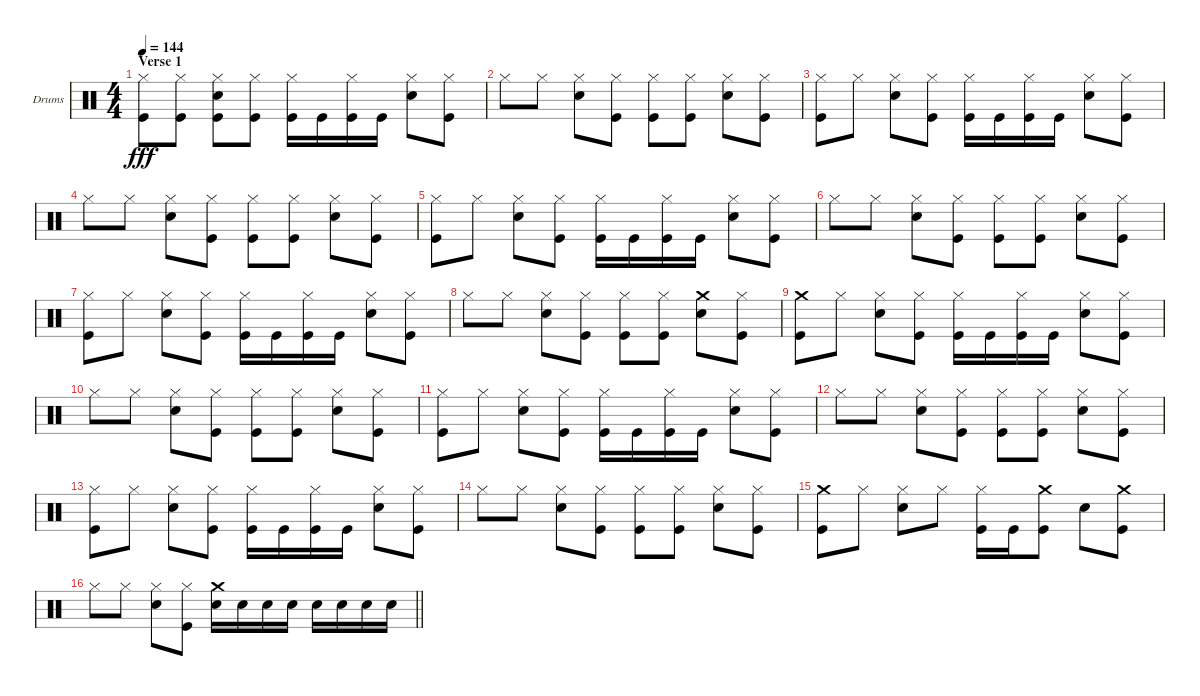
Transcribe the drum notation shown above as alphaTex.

\bracketExtendMode groupsimilarinstruments
\firstSystemTrackNameOrientation horizontal
\otherSystemsTrackNameOrientation horizontal
\track ("Drumkit" "Drums") {instrument percussion}
\staff {score}
\articulation defaults
\ts (4 4)
\section ("" "Verse 1")
\tempo 144
\clef neutral
\ks c
("Kick (hit)" "Hi-Hat (closed)").8{dy fff} ("Kick (hit)" "Hi-Hat (closed)").8 ("Kick (hit)" "Hi-Hat (closed)" "Snare (hit) 2").8 ("Kick (hit)" "Hi-Hat (closed)").8 ("Kick (hit)" "Hi-Hat (closed)").16 "Kick (hit)".16 ("Kick (hit)" "Hi-Hat (closed)").16 "Kick (hit)".16 ("Hi-Hat (closed)" "Snare (hit) 2").8 ("Kick (hit)" "Hi-Hat (closed)").8 |
"Hi-Hat (closed)".8 "Hi-Hat (closed)".8 ("Hi-Hat (closed)" "Snare (hit) 2").8 ("Kick (hit)" "Hi-Hat (closed)").8 ("Kick (hit)" "Hi-Hat (closed)").8 ("Hi-Hat (closed)" "Kick (hit)").8 ("Hi-Hat (closed)" "Snare (hit) 2").8 ("Hi-Hat (closed)" "Kick (hit)").8 |
("Kick (hit)" "Hi-Hat (closed)").8 "Hi-Hat (closed)".8 ("Hi-Hat (closed)" "Snare (hit) 2").8 ("Kick (hit)" "Hi-Hat (closed)").8 ("Kick (hit)" "Hi-Hat (closed)").16 "Kick (hit)".16 ("Kick (hit)" "Hi-Hat (closed)").16 "Kick (hit)".16 ("Hi-Hat (closed)" "Snare (hit) 2").8 ("Kick (hit)" "Hi-Hat (closed)").8 |
"Hi-Hat (closed)".8 "Hi-Hat (closed)".8 ("Hi-Hat (closed)" "Snare (hit) 2").8 ("Kick (hit)" "Hi-Hat (closed)").8 ("Kick (hit)" "Hi-Hat (closed)").8 ("Hi-Hat (closed)" "Kick (hit)").8 ("Hi-Hat (closed)" "Snare (hit) 2").8 ("Hi-Hat (closed)" "Kick (hit)").8 |
("Kick (hit)" "Hi-Hat (closed)").8 "Hi-Hat (closed)".8 ("Hi-Hat (closed)" "Snare (hit) 2").8 ("Kick (hit)" "Hi-Hat (closed)").8 ("Kick (hit)" "Hi-Hat (closed)").16 "Kick (hit)".16 ("Kick (hit)" "Hi-Hat (closed)").16 "Kick (hit)".16 ("Hi-Hat (closed)" "Snare (hit) 2").8 ("Kick (hit)" "Hi-Hat (closed)").8 |
"Hi-Hat (closed)".8 "Hi-Hat (closed)".8 ("Hi-Hat (closed)" "Snare (hit) 2").8 ("Kick (hit)" "Hi-Hat (closed)").8 ("Kick (hit)" "Hi-Hat (closed)").8 ("Hi-Hat (closed)" "Kick (hit)").8 ("Hi-Hat (closed)" "Snare (hit) 2").8 ("Hi-Hat (closed)" "Kick (hit)").8 |
("Kick (hit)" "Hi-Hat (closed)").8 "Hi-Hat (closed)".8 ("Hi-Hat (closed)" "Snare (hit) 2").8 ("Kick (hit)" "Hi-Hat (closed)").8 ("Kick (hit)" "Hi-Hat (closed)").16 "Kick (hit)".16 ("Kick (hit)" "Hi-Hat (closed)").16 "Kick (hit)".16 ("Hi-Hat (closed)" "Snare (hit) 2").8 ("Kick (hit)" "Hi-Hat (closed)").8 |
"Hi-Hat (closed)".8 "Hi-Hat (closed)".8 ("Hi-Hat (closed)" "Snare (hit) 2").8 ("Kick (hit)" "Hi-Hat (closed)").8 ("Kick (hit)" "Hi-Hat (closed)").8 ("Hi-Hat (closed)" "Kick (hit)").8 ("Snare (hit) 2" "Crash medium (hit)").8 ("Hi-Hat (closed)" "Kick (hit)").8 |
("Kick (hit)" "Crash medium (hit)").8 "Hi-Hat (closed)".8 ("Hi-Hat (closed)" "Snare (hit) 2").8 ("Kick (hit)" "Hi-Hat (closed)").8 ("Kick (hit)" "Hi-Hat (closed)").16 "Kick (hit)".16 ("Kick (hit)" "Hi-Hat (closed)").16 "Kick (hit)".16 ("Hi-Hat (closed)" "Snare (hit) 2").8 ("Kick (hit)" "Hi-Hat (closed)").8 |
"Hi-Hat (closed)".8 "Hi-Hat (closed)".8 ("Hi-Hat (closed)" "Snare (hit) 2").8 ("Kick (hit)" "Hi-Hat (closed)").8 ("Kick (hit)" "Hi-Hat (closed)").8 ("Hi-Hat (closed)" "Kick (hit)").8 ("Hi-Hat (closed)" "Snare (hit) 2").8 ("Hi-Hat (closed)" "Kick (hit)").8 |
("Kick (hit)" "Hi-Hat (closed)").8 "Hi-Hat (closed)".8 ("Hi-Hat (closed)" "Snare (hit) 2").8 ("Kick (hit)" "Hi-Hat (closed)").8 ("Kick (hit)" "Hi-Hat (closed)").16 "Kick (hit)".16 ("Kick (hit)" "Hi-Hat (closed)").16 "Kick (hit)".16 ("Hi-Hat (closed)" "Snare (hit) 2").8 ("Kick (hit)" "Hi-Hat (closed)").8 |
"Hi-Hat (closed)".8 "Hi-Hat (closed)".8 ("Hi-Hat (closed)" "Snare (hit) 2").8 ("Kick (hit)" "Hi-Hat (closed)").8 ("Kick (hit)" "Hi-Hat (closed)").8 ("Hi-Hat (closed)" "Kick (hit)").8 ("Hi-Hat (closed)" "Snare (hit) 2").8 ("Hi-Hat (closed)" "Kick (hit)").8 |
("Kick (hit)" "Hi-Hat (closed)").8 "Hi-Hat (closed)".8 ("Hi-Hat (closed)" "Snare (hit) 2").8 ("Kick (hit)" "Hi-Hat (closed)").8 ("Kick (hit)" "Hi-Hat (closed)").16 "Kick (hit)".16 ("Kick (hit)" "Hi-Hat (closed)").16 "Kick (hit)".16 ("Hi-Hat (closed)" "Snare (hit) 2").8 ("Kick (hit)" "Hi-Hat (closed)").8 |
"Hi-Hat (closed)".8 "Hi-Hat (closed)".8 ("Hi-Hat (closed)" "Snare (hit) 2").8 ("Kick (hit)" "Hi-Hat (closed)").8 ("Kick (hit)" "Hi-Hat (closed)").8 ("Hi-Hat (closed)" "Kick (hit)").8 ("Hi-Hat (closed)" "Snare (hit) 2").8 ("Hi-Hat (closed)" "Kick (hit)").8 |
("Kick (hit)" "Crash medium (hit)").8 "Hi-Hat (closed)".8 ("Hi-Hat (closed)" "Snare (hit) 2").8 "Hi-Hat (closed)".8 ("Kick (hit)" "Hi-Hat (closed)").16 "Kick (hit)".16 ("Kick (hit)" "Crash medium (hit)").8 "Snare (hit) 2".8 ("Kick (hit)" "Crash medium (hit)").8 |
\barLineRight lightlight "Hi-Hat (closed)".8 "Hi-Hat (closed)".8
("Hi-Hat (closed)" "Snare (hit) 2").8 ("Kick (hit)" "Hi-Hat (closed)").8 ("Snare (hit) 2" "Crash medium (hit)").16 "Snare (hit) 2".16 "Snare (hit) 2".16 "Snare (hit) 2".16 "Snare (hit) 2".16 "Snare (hit) 2".16 "Snare (hit) 2".16 "Snare (hit) 2".16
